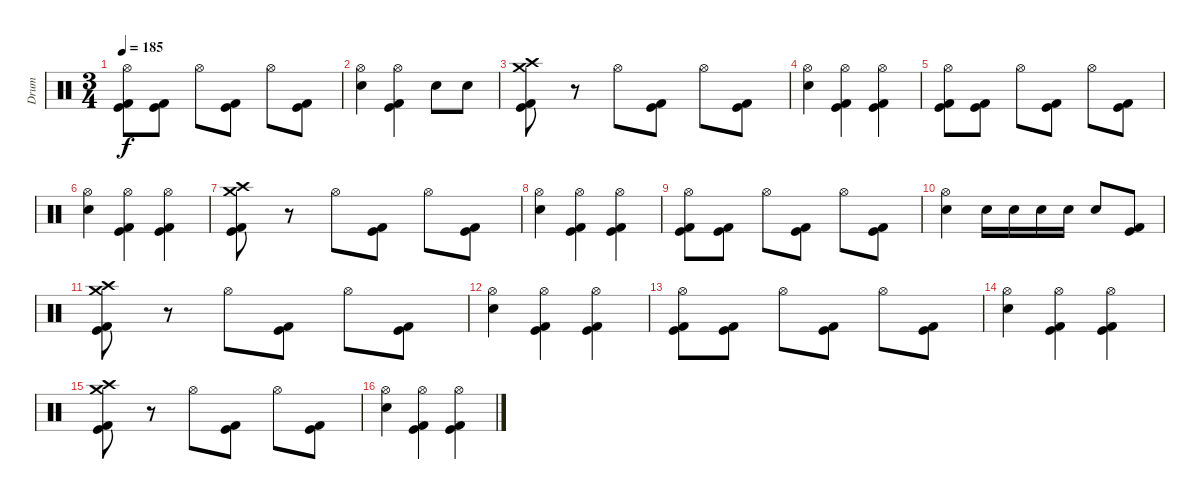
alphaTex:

\track ("Drum" "Drum") {instrument percussion}
\staff {score}
\articulation defaults
\ts (3 4)
\tempo 185
\clef neutral
\ks c
("Hi-Hat (open)" "Kick (hit)" "Kick (hit) 2").8{dy f} ("Kick (hit)" "Kick (hit) 2").8 "Hi-Hat (open)".8 ("Kick (hit)" "Kick (hit) 2").8 "Hi-Hat (open)".8 ("Kick (hit)" "Kick (hit) 2").8 |
("Hi-Hat (open)" "Electric Snare (hit)").4 ("Hi-Hat (open)" "Kick (hit)" "Kick (hit) 2").4 "Electric Snare (hit)".8 "Electric Snare (hit)".8 |
("Crash medium (hit)" "Crash high (hit)" "Kick (hit)" "Kick (hit) 2").8 r.8 "Hi-Hat (open)".8 ("Kick (hit)" "Kick (hit) 2").8 "Hi-Hat (open)".8 ("Kick (hit)" "Kick (hit) 2").8 |
("Hi-Hat (open)" "Electric Snare (hit)").4 ("Hi-Hat (open)" "Kick (hit)" "Kick (hit) 2").4 ("Hi-Hat (open)" "Kick (hit)" "Kick (hit) 2").4 |
("Hi-Hat (open)" "Kick (hit)" "Kick (hit) 2").8 ("Kick (hit)" "Kick (hit) 2").8 "Hi-Hat (open)".8 ("Kick (hit)" "Kick (hit) 2").8 "Hi-Hat (open)".8 ("Kick (hit)" "Kick (hit) 2").8 |
("Hi-Hat (open)" "Electric Snare (hit)").4 ("Hi-Hat (open)" "Kick (hit)" "Kick (hit) 2").4 ("Hi-Hat (open)" "Kick (hit)" "Kick (hit) 2").4 |
("Crash medium (hit)" "Crash high (hit)" "Kick (hit)" "Kick (hit) 2").8 r.8 "Hi-Hat (open)".8 ("Kick (hit)" "Kick (hit) 2").8 "Hi-Hat (open)".8 ("Kick (hit)" "Kick (hit) 2").8 |
("Hi-Hat (open)" "Electric Snare (hit)").4 ("Hi-Hat (open)" "Kick (hit)" "Kick (hit) 2").4 ("Hi-Hat (open)" "Kick (hit)" "Kick (hit) 2").4 |
("Hi-Hat (open)" "Kick (hit)" "Kick (hit) 2").8 ("Kick (hit)" "Kick (hit) 2").8 "Hi-Hat (open)".8 ("Kick (hit)" "Kick (hit) 2").8 "Hi-Hat (open)".8 ("Kick (hit)" "Kick (hit) 2").8 |
("Hi-Hat (open)" "Electric Snare (hit)").4 "Electric Snare (hit)".16 "Electric Snare (hit)".16 "Electric Snare (hit)".16 "Electric Snare (hit)".16 "Electric Snare (hit)".8 ("Kick (hit)" "Kick (hit) 2").8 |
("Crash medium (hit)" "Crash high (hit)" "Kick (hit)" "Kick (hit) 2").8 r.8 "Hi-Hat (open)".8 ("Kick (hit)" "Kick (hit) 2").8 "Hi-Hat (open)".8 ("Kick (hit)" "Kick (hit) 2").8 |
("Hi-Hat (open)" "Electric Snare (hit)").4 ("Hi-Hat (open)" "Kick (hit)" "Kick (hit) 2").4 ("Hi-Hat (open)" "Kick (hit)" "Kick (hit) 2").4 |
("Hi-Hat (open)" "Kick (hit)" "Kick (hit) 2").8 ("Kick (hit)" "Kick (hit) 2").8 "Hi-Hat (open)".8 ("Kick (hit)" "Kick (hit) 2").8 "Hi-Hat (open)".8 ("Kick (hit)" "Kick (hit) 2").8 |
("Hi-Hat (open)" "Electric Snare (hit)").4 ("Hi-Hat (open)" "Kick (hit)" "Kick (hit) 2").4 ("Hi-Hat (open)" "Kick (hit)" "Kick (hit) 2").4 |
("Crash medium (hit)" "Crash high (hit)" "Kick (hit)" "Kick (hit) 2").8 r.8 "Hi-Hat (open)".8 ("Kick (hit)" "Kick (hit) 2").8 "Hi-Hat (open)".8 ("Kick (hit)" "Kick (hit) 2").8 |
("Hi-Hat (open)" "Electric Snare (hit)").4 ("Hi-Hat (open)" "Kick (hit)" "Kick (hit) 2").4 ("Hi-Hat (open)" "Kick (hit)" "Kick (hit) 2").4
